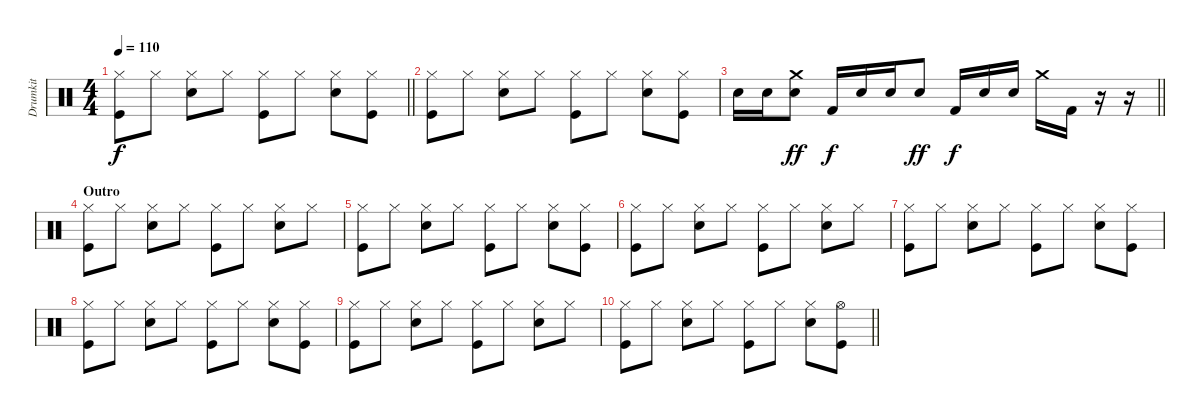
\track ("Drumkit" "Drumkit") {instrument percussion}
\staff {score}
\articulation defaults
\ts (4 4)
\tempo 110
\clef neutral
\barLineRight lightlight
\ks c
("Hi-Hat (closed)" "Kick (hit)").8{dy f} "Hi-Hat (closed)".8 ("Hi-Hat (closed)" "Snare (hit) 2").8 "Hi-Hat (closed)".8 ("Hi-Hat (closed)" "Kick (hit)").8 "Hi-Hat (closed)".8 ("Hi-Hat (closed)" "Snare (hit) 2").8 ("Hi-Hat (closed)" "Kick (hit)").8 |
("Hi-Hat (closed)" "Kick (hit)").8 "Hi-Hat (closed)".8 ("Hi-Hat (closed)" "Snare (hit) 2").8 "Hi-Hat (closed)".8 ("Hi-Hat (closed)" "Kick (hit)").8 "Hi-Hat (closed)".8 ("Hi-Hat (closed)" "Snare (hit) 2").8 ("Hi-Hat (closed)" "Kick (hit)").8 |
\barLineRight lightlight "Snare (hit) 2".16 "Snare (hit) 2".16
("Crash medium (hit)" "Snare (hit) 2").8{dy ff} "Kick (hit) 2".16{dy f} "Snare (hit) 2".16 "Snare (hit) 2".16 "Snare (hit) 2".8{dy ff} "Kick (hit) 2".16{dy f} "Snare (hit) 2".16 "Snare (hit) 2".16 "Crash medium (hit)".16 "Kick (hit) 2".16 r.16 r.16 |
\section ("" "Outro")
("Hi-Hat (closed)" "Kick (hit)").8 "Hi-Hat (closed)".8 ("Hi-Hat (closed)" "Snare (hit) 2").8 "Hi-Hat (closed)".8 ("Hi-Hat (closed)" "Kick (hit)").8 "Hi-Hat (closed)".8 ("Hi-Hat (closed)" "Snare (hit) 2").8 "Hi-Hat (closed)".8 |
("Hi-Hat (closed)" "Kick (hit)").8 "Hi-Hat (closed)".8 ("Hi-Hat (closed)" "Snare (hit) 2").8 "Hi-Hat (closed)".8 ("Hi-Hat (closed)" "Kick (hit)").8 "Hi-Hat (closed)".8 ("Hi-Hat (closed)" "Snare (hit) 2").8 ("Hi-Hat (closed)" "Kick (hit)").8 |
("Hi-Hat (closed)" "Kick (hit)").8 "Hi-Hat (closed)".8 ("Hi-Hat (closed)" "Snare (hit) 2").8 "Hi-Hat (closed)".8 ("Hi-Hat (closed)" "Kick (hit)").8 "Hi-Hat (closed)".8 ("Hi-Hat (closed)" "Snare (hit) 2").8 "Hi-Hat (closed)".8 |
("Hi-Hat (closed)" "Kick (hit)").8 "Hi-Hat (closed)".8 ("Hi-Hat (closed)" "Snare (hit) 2").8 "Hi-Hat (closed)".8 ("Hi-Hat (closed)" "Kick (hit)").8 "Hi-Hat (closed)".8 ("Hi-Hat (closed)" "Snare (hit) 2").8 ("Hi-Hat (closed)" "Kick (hit)").8 |
("Hi-Hat (closed)" "Kick (hit)").8 "Hi-Hat (closed)".8 ("Hi-Hat (closed)" "Snare (hit) 2").8 "Hi-Hat (closed)".8 ("Hi-Hat (closed)" "Kick (hit)").8 "Hi-Hat (closed)".8 ("Hi-Hat (closed)" "Snare (hit) 2").8 ("Hi-Hat (closed)" "Kick (hit)").8 |
("Hi-Hat (closed)" "Kick (hit)").8 "Hi-Hat (closed)".8 ("Hi-Hat (closed)" "Snare (hit) 2").8 "Hi-Hat (closed)".8 ("Hi-Hat (closed)" "Kick (hit)").8 "Hi-Hat (closed)".8 ("Hi-Hat (closed)" "Snare (hit) 2").8 "Hi-Hat (closed)".8 |
\barLineRight lightlight
("Hi-Hat (closed)" "Kick (hit)").8 "Hi-Hat (closed)".8 ("Hi-Hat (closed)" "Snare (hit) 2").8 "Hi-Hat (closed)".8 ("Hi-Hat (closed)" "Kick (hit)").8 "Hi-Hat (closed)".8 ("Hi-Hat (closed)" "Snare (hit) 2").8 ("Hi-Hat (open)" "Kick (hit)").8
